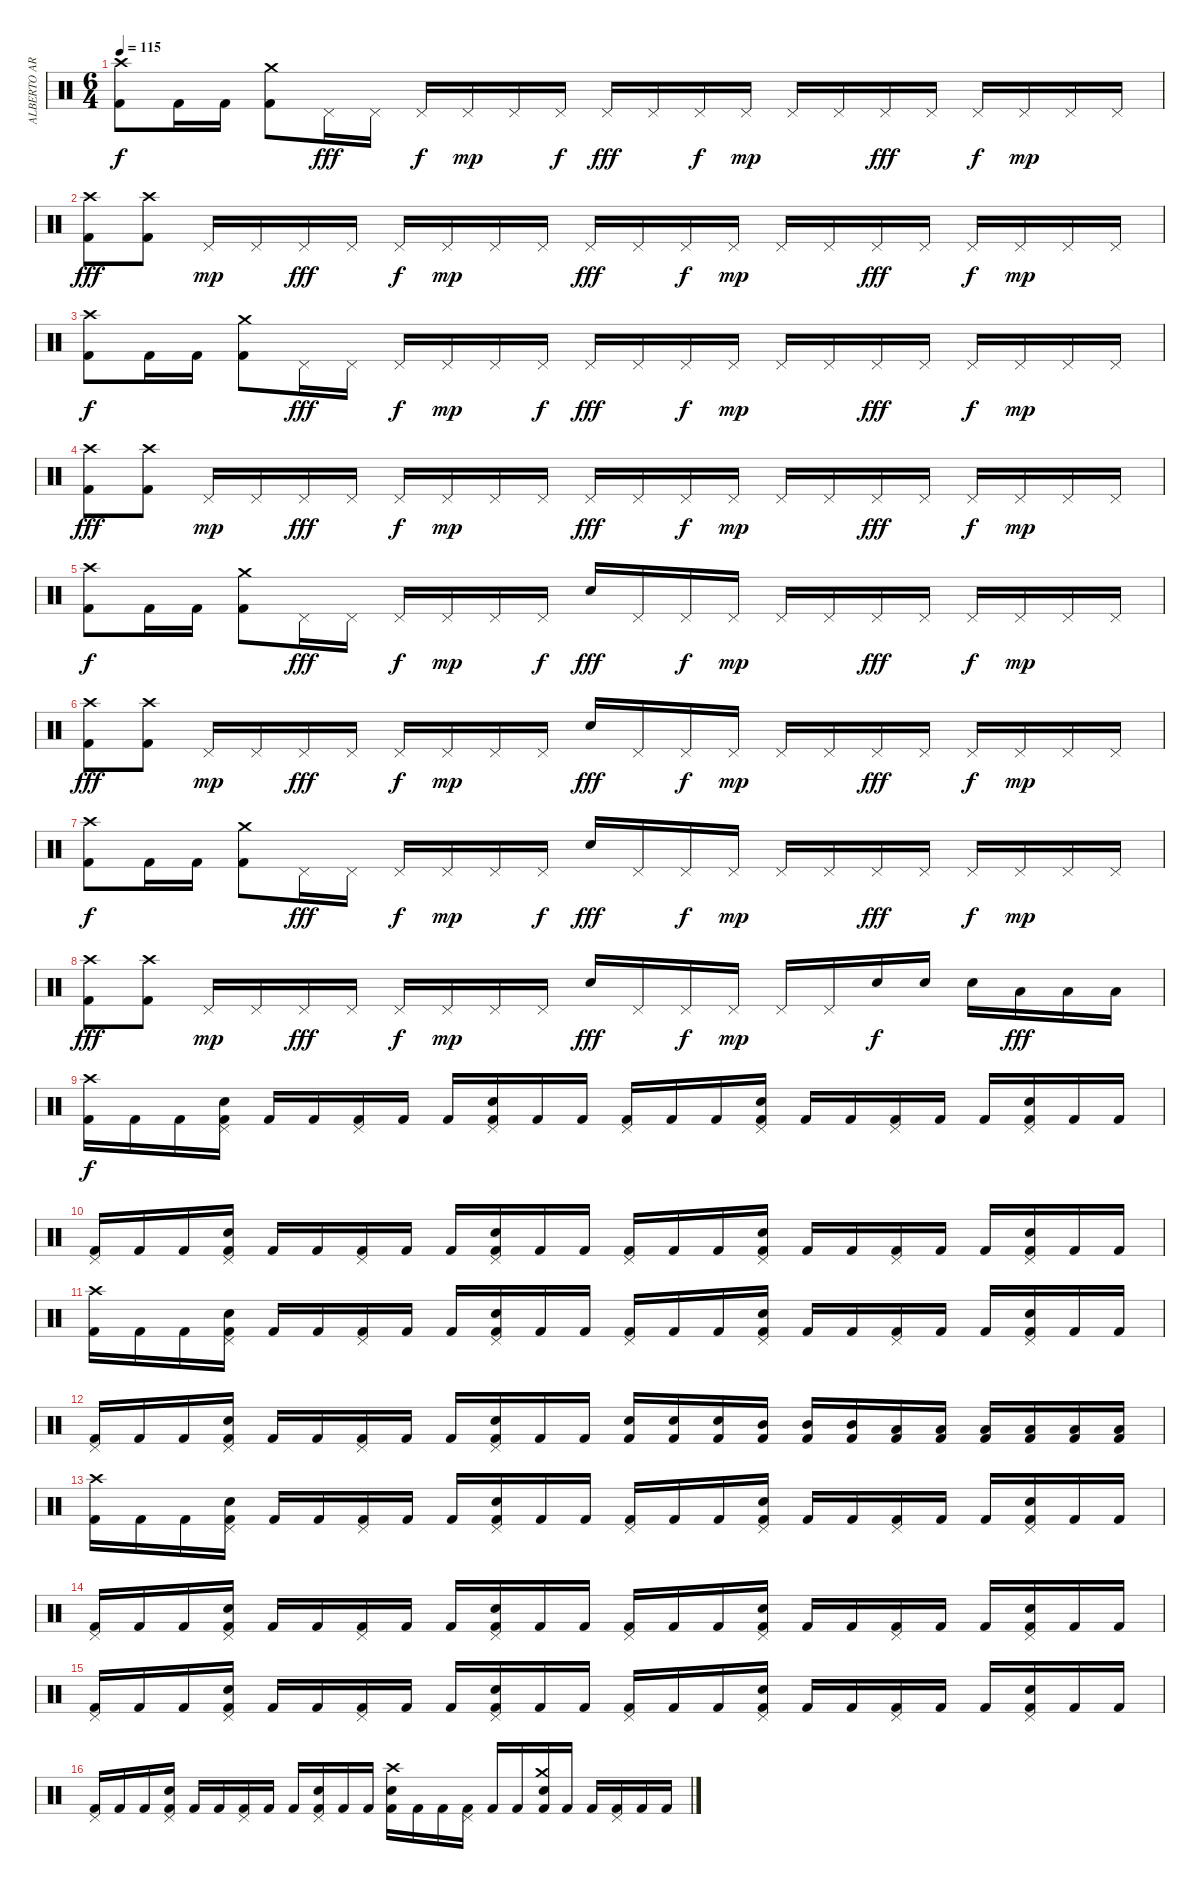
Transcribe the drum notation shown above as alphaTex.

\track ("ALBERTO ARDINES" "ALBERTO AR") {instrument percussion}
\staff {score}
\articulation defaults
\ts (6 4)
\tempo 115
\clef neutral
\ks c
("Crash high (hit)" "Kick (hit) 2").8{dy f} "Kick (hit) 2".16 "Kick (hit) 2".16 ("Crash medium (hit)" "Kick (hit) 2").8 "Pedal Hi-Hat (hit)".16{dy fff} "Pedal Hi-Hat (hit)".16 "Pedal Hi-Hat (hit)".16{dy f} "Pedal Hi-Hat (hit)".16{dy mp} "Pedal Hi-Hat (hit)".16 "Pedal Hi-Hat (hit)".16{dy f} "Pedal Hi-Hat (hit)".16{dy fff} "Pedal Hi-Hat (hit)".16 "Pedal Hi-Hat (hit)".16{dy f} "Pedal Hi-Hat (hit)".16{dy mp} "Pedal Hi-Hat (hit)".16 "Pedal Hi-Hat (hit)".16 "Pedal Hi-Hat (hit)".16{dy fff} "Pedal Hi-Hat (hit)".16 "Pedal Hi-Hat (hit)".16{dy f} "Pedal Hi-Hat (hit)".16{dy mp} "Pedal Hi-Hat (hit)".16 "Pedal Hi-Hat (hit)".16 |
("Crash high (hit)" "Kick (hit) 2").8{dy fff} ("Crash high (hit)" "Kick (hit) 2").8 "Pedal Hi-Hat (hit)".16{dy mp} "Pedal Hi-Hat (hit)".16 "Pedal Hi-Hat (hit)".16{dy fff} "Pedal Hi-Hat (hit)".16 "Pedal Hi-Hat (hit)".16{dy f} "Pedal Hi-Hat (hit)".16{dy mp} "Pedal Hi-Hat (hit)".16 "Pedal Hi-Hat (hit)".16 "Pedal Hi-Hat (hit)".16{dy fff} "Pedal Hi-Hat (hit)".16 "Pedal Hi-Hat (hit)".16{dy f} "Pedal Hi-Hat (hit)".16{dy mp} "Pedal Hi-Hat (hit)".16 "Pedal Hi-Hat (hit)".16 "Pedal Hi-Hat (hit)".16{dy fff} "Pedal Hi-Hat (hit)".16 "Pedal Hi-Hat (hit)".16{dy f} "Pedal Hi-Hat (hit)".16{dy mp} "Pedal Hi-Hat (hit)".16 "Pedal Hi-Hat (hit)".16 |
("Crash high (hit)" "Kick (hit) 2").8{dy f} "Kick (hit) 2".16 "Kick (hit) 2".16 ("Crash medium (hit)" "Kick (hit) 2").8 "Pedal Hi-Hat (hit)".16{dy fff} "Pedal Hi-Hat (hit)".16 "Pedal Hi-Hat (hit)".16{dy f} "Pedal Hi-Hat (hit)".16{dy mp} "Pedal Hi-Hat (hit)".16 "Pedal Hi-Hat (hit)".16{dy f} "Pedal Hi-Hat (hit)".16{dy fff} "Pedal Hi-Hat (hit)".16 "Pedal Hi-Hat (hit)".16{dy f} "Pedal Hi-Hat (hit)".16{dy mp} "Pedal Hi-Hat (hit)".16 "Pedal Hi-Hat (hit)".16 "Pedal Hi-Hat (hit)".16{dy fff} "Pedal Hi-Hat (hit)".16 "Pedal Hi-Hat (hit)".16{dy f} "Pedal Hi-Hat (hit)".16{dy mp} "Pedal Hi-Hat (hit)".16 "Pedal Hi-Hat (hit)".16 |
("Crash high (hit)" "Kick (hit) 2").8{dy fff} ("Crash high (hit)" "Kick (hit) 2").8 "Pedal Hi-Hat (hit)".16{dy mp} "Pedal Hi-Hat (hit)".16 "Pedal Hi-Hat (hit)".16{dy fff} "Pedal Hi-Hat (hit)".16 "Pedal Hi-Hat (hit)".16{dy f} "Pedal Hi-Hat (hit)".16{dy mp} "Pedal Hi-Hat (hit)".16 "Pedal Hi-Hat (hit)".16 "Pedal Hi-Hat (hit)".16{dy fff} "Pedal Hi-Hat (hit)".16 "Pedal Hi-Hat (hit)".16{dy f} "Pedal Hi-Hat (hit)".16{dy mp} "Pedal Hi-Hat (hit)".16 "Pedal Hi-Hat (hit)".16 "Pedal Hi-Hat (hit)".16{dy fff} "Pedal Hi-Hat (hit)".16 "Pedal Hi-Hat (hit)".16{dy f} "Pedal Hi-Hat (hit)".16{dy mp} "Pedal Hi-Hat (hit)".16 "Pedal Hi-Hat (hit)".16 |
("Crash high (hit)" "Kick (hit) 2").8{dy f} "Kick (hit) 2".16 "Kick (hit) 2".16 ("Crash medium (hit)" "Kick (hit) 2").8 "Pedal Hi-Hat (hit)".16{dy fff} "Pedal Hi-Hat (hit)".16 "Pedal Hi-Hat (hit)".16{dy f} "Pedal Hi-Hat (hit)".16{dy mp} "Pedal Hi-Hat (hit)".16 "Pedal Hi-Hat (hit)".16{dy f} "Electric Snare (hit)".16{dy fff} "Pedal Hi-Hat (hit)".16 "Pedal Hi-Hat (hit)".16{dy f} "Pedal Hi-Hat (hit)".16{dy mp} "Pedal Hi-Hat (hit)".16 "Pedal Hi-Hat (hit)".16 "Pedal Hi-Hat (hit)".16{dy fff} "Pedal Hi-Hat (hit)".16 "Pedal Hi-Hat (hit)".16{dy f} "Pedal Hi-Hat (hit)".16{dy mp} "Pedal Hi-Hat (hit)".16 "Pedal Hi-Hat (hit)".16 |
("Crash high (hit)" "Kick (hit) 2").8{dy fff} ("Crash high (hit)" "Kick (hit) 2").8 "Pedal Hi-Hat (hit)".16{dy mp} "Pedal Hi-Hat (hit)".16 "Pedal Hi-Hat (hit)".16{dy fff} "Pedal Hi-Hat (hit)".16 "Pedal Hi-Hat (hit)".16{dy f} "Pedal Hi-Hat (hit)".16{dy mp} "Pedal Hi-Hat (hit)".16 "Pedal Hi-Hat (hit)".16 "Electric Snare (hit)".16{dy fff} "Pedal Hi-Hat (hit)".16 "Pedal Hi-Hat (hit)".16{dy f} "Pedal Hi-Hat (hit)".16{dy mp} "Pedal Hi-Hat (hit)".16 "Pedal Hi-Hat (hit)".16 "Pedal Hi-Hat (hit)".16{dy fff} "Pedal Hi-Hat (hit)".16 "Pedal Hi-Hat (hit)".16{dy f} "Pedal Hi-Hat (hit)".16{dy mp} "Pedal Hi-Hat (hit)".16 "Pedal Hi-Hat (hit)".16 |
("Crash high (hit)" "Kick (hit) 2").8{dy f} "Kick (hit) 2".16 "Kick (hit) 2".16 ("Crash medium (hit)" "Kick (hit) 2").8 "Pedal Hi-Hat (hit)".16{dy fff} "Pedal Hi-Hat (hit)".16 "Pedal Hi-Hat (hit)".16{dy f} "Pedal Hi-Hat (hit)".16{dy mp} "Pedal Hi-Hat (hit)".16 "Pedal Hi-Hat (hit)".16{dy f} "Electric Snare (hit)".16{dy fff} "Pedal Hi-Hat (hit)".16 "Pedal Hi-Hat (hit)".16{dy f} "Pedal Hi-Hat (hit)".16{dy mp} "Pedal Hi-Hat (hit)".16 "Pedal Hi-Hat (hit)".16 "Pedal Hi-Hat (hit)".16{dy fff} "Pedal Hi-Hat (hit)".16 "Pedal Hi-Hat (hit)".16{dy f} "Pedal Hi-Hat (hit)".16{dy mp} "Pedal Hi-Hat (hit)".16 "Pedal Hi-Hat (hit)".16 |
("Crash high (hit)" "Kick (hit) 2").8{dy fff} ("Crash high (hit)" "Kick (hit) 2").8 "Pedal Hi-Hat (hit)".16{dy mp} "Pedal Hi-Hat (hit)".16 "Pedal Hi-Hat (hit)".16{dy fff} "Pedal Hi-Hat (hit)".16 "Pedal Hi-Hat (hit)".16{dy f} "Pedal Hi-Hat (hit)".16{dy mp} "Pedal Hi-Hat (hit)".16 "Pedal Hi-Hat (hit)".16 "Electric Snare (hit)".16{dy fff} "Pedal Hi-Hat (hit)".16 "Pedal Hi-Hat (hit)".16{dy f} "Pedal Hi-Hat (hit)".16{dy mp} "Pedal Hi-Hat (hit)".16 "Pedal Hi-Hat (hit)".16 "Electric Snare (hit)".16{dy f} "Electric Snare (hit)".16 "Electric Snare (hit)".16 "Low Tom (hit)".16{dy fff} "Low Tom (hit)".16 "Low Tom (hit)".16 |
("Crash high (hit)" "Kick (hit) 2").16{dy f} "Kick (hit) 2".16 "Kick (hit) 2".16 ("Pedal Hi-Hat (hit)" "Electric Snare (hit)" "Kick (hit) 2").16 "Kick (hit) 2".16 "Kick (hit) 2".16 ("Pedal Hi-Hat (hit)" "Kick (hit) 2").16 "Kick (hit) 2".16 "Kick (hit) 2".16 ("Pedal Hi-Hat (hit)" "Electric Snare (hit)" "Kick (hit) 2").16 "Kick (hit) 2".16 "Kick (hit) 2".16 ("Pedal Hi-Hat (hit)" "Kick (hit) 2").16 "Kick (hit) 2".16 "Kick (hit) 2".16 ("Pedal Hi-Hat (hit)" "Electric Snare (hit)" "Kick (hit) 2").16 "Kick (hit) 2".16 "Kick (hit) 2".16 ("Pedal Hi-Hat (hit)" "Kick (hit) 2").16 "Kick (hit) 2".16 "Kick (hit) 2".16 ("Pedal Hi-Hat (hit)" "Electric Snare (hit)" "Kick (hit) 2").16 "Kick (hit) 2".16 "Kick (hit) 2".16 |
("Pedal Hi-Hat (hit)" "Kick (hit) 2").16 "Kick (hit) 2".16 "Kick (hit) 2".16 ("Pedal Hi-Hat (hit)" "Electric Snare (hit)" "Kick (hit) 2").16 "Kick (hit) 2".16 "Kick (hit) 2".16 ("Pedal Hi-Hat (hit)" "Kick (hit) 2").16 "Kick (hit) 2".16 "Kick (hit) 2".16 ("Pedal Hi-Hat (hit)" "Electric Snare (hit)" "Kick (hit) 2").16 "Kick (hit) 2".16 "Kick (hit) 2".16 ("Pedal Hi-Hat (hit)" "Kick (hit) 2").16 "Kick (hit) 2".16 "Kick (hit) 2".16 ("Pedal Hi-Hat (hit)" "Electric Snare (hit)" "Kick (hit) 2").16 "Kick (hit) 2".16 "Kick (hit) 2".16 ("Pedal Hi-Hat (hit)" "Kick (hit) 2").16 "Kick (hit) 2".16 "Kick (hit) 2".16 ("Pedal Hi-Hat (hit)" "Electric Snare (hit)" "Kick (hit) 2").16 "Kick (hit) 2".16 "Kick (hit) 2".16 |
("Crash high (hit)" "Kick (hit) 2").16 "Kick (hit) 2".16 "Kick (hit) 2".16 ("Pedal Hi-Hat (hit)" "Electric Snare (hit)" "Kick (hit) 2").16 "Kick (hit) 2".16 "Kick (hit) 2".16 ("Pedal Hi-Hat (hit)" "Kick (hit) 2").16 "Kick (hit) 2".16 "Kick (hit) 2".16 ("Pedal Hi-Hat (hit)" "Electric Snare (hit)" "Kick (hit) 2").16 "Kick (hit) 2".16 "Kick (hit) 2".16 ("Pedal Hi-Hat (hit)" "Kick (hit) 2").16 "Kick (hit) 2".16 "Kick (hit) 2".16 ("Pedal Hi-Hat (hit)" "Electric Snare (hit)" "Kick (hit) 2").16 "Kick (hit) 2".16 "Kick (hit) 2".16 ("Pedal Hi-Hat (hit)" "Kick (hit) 2").16 "Kick (hit) 2".16 "Kick (hit) 2".16 ("Pedal Hi-Hat (hit)" "Electric Snare (hit)" "Kick (hit) 2").16 "Kick (hit) 2".16 "Kick (hit) 2".16 |
("Pedal Hi-Hat (hit)" "Kick (hit) 2").16 "Kick (hit) 2".16 "Kick (hit) 2".16 ("Pedal Hi-Hat (hit)" "Electric Snare (hit)" "Kick (hit) 2").16 "Kick (hit) 2".16 "Kick (hit) 2".16 ("Pedal Hi-Hat (hit)" "Kick (hit) 2").16 "Kick (hit) 2".16 "Kick (hit) 2".16 ("Pedal Hi-Hat (hit)" "Electric Snare (hit)" "Kick (hit) 2").16 "Kick (hit) 2".16 "Kick (hit) 2".16 ("Electric Snare (hit)" "Kick (hit) 2").16 ("Electric Snare (hit)" "Kick (hit) 2").16 ("Electric Snare (hit)" "Kick (hit) 2").16 ("Mid Tom (hit)" "Kick (hit) 2").16 ("Mid Tom (hit)" "Kick (hit) 2").16 ("Mid Tom (hit)" "Kick (hit) 2").16 ("Low Tom (hit)" "Kick (hit) 2").16 ("Low Tom (hit)" "Kick (hit) 2").16 ("Low Tom (hit)" "Kick (hit) 2").16 ("Low Floor Tom (hit)" "Kick (hit) 2").16 ("Low Floor Tom (hit)" "Kick (hit) 2").16 ("Low Floor Tom (hit)" "Kick (hit) 2").16 |
("Crash high (hit)" "Kick (hit) 2").16 "Kick (hit) 2".16 "Kick (hit) 2".16 ("Pedal Hi-Hat (hit)" "Electric Snare (hit)" "Kick (hit) 2").16 "Kick (hit) 2".16 "Kick (hit) 2".16 ("Pedal Hi-Hat (hit)" "Kick (hit) 2").16 "Kick (hit) 2".16 "Kick (hit) 2".16 ("Pedal Hi-Hat (hit)" "Electric Snare (hit)" "Kick (hit) 2").16 "Kick (hit) 2".16 "Kick (hit) 2".16 ("Pedal Hi-Hat (hit)" "Kick (hit) 2").16 "Kick (hit) 2".16 "Kick (hit) 2".16 ("Pedal Hi-Hat (hit)" "Electric Snare (hit)" "Kick (hit) 2").16 "Kick (hit) 2".16 "Kick (hit) 2".16 ("Pedal Hi-Hat (hit)" "Kick (hit) 2").16 "Kick (hit) 2".16 "Kick (hit) 2".16 ("Pedal Hi-Hat (hit)" "Electric Snare (hit)" "Kick (hit) 2").16 "Kick (hit) 2".16 "Kick (hit) 2".16 |
("Pedal Hi-Hat (hit)" "Kick (hit) 2").16 "Kick (hit) 2".16 "Kick (hit) 2".16 ("Pedal Hi-Hat (hit)" "Electric Snare (hit)" "Kick (hit) 2").16 "Kick (hit) 2".16 "Kick (hit) 2".16 ("Pedal Hi-Hat (hit)" "Kick (hit) 2").16 "Kick (hit) 2".16 "Kick (hit) 2".16 ("Pedal Hi-Hat (hit)" "Electric Snare (hit)" "Kick (hit) 2").16 "Kick (hit) 2".16 "Kick (hit) 2".16 ("Pedal Hi-Hat (hit)" "Kick (hit) 2").16 "Kick (hit) 2".16 "Kick (hit) 2".16 ("Pedal Hi-Hat (hit)" "Electric Snare (hit)" "Kick (hit) 2").16 "Kick (hit) 2".16 "Kick (hit) 2".16 ("Pedal Hi-Hat (hit)" "Kick (hit) 2").16 "Kick (hit) 2".16 "Kick (hit) 2".16 ("Pedal Hi-Hat (hit)" "Electric Snare (hit)" "Kick (hit) 2").16 "Kick (hit) 2".16 "Kick (hit) 2".16 |
("Pedal Hi-Hat (hit)" "Kick (hit) 2").16 "Kick (hit) 2".16 "Kick (hit) 2".16 ("Pedal Hi-Hat (hit)" "Electric Snare (hit)" "Kick (hit) 2").16 "Kick (hit) 2".16 "Kick (hit) 2".16 ("Pedal Hi-Hat (hit)" "Kick (hit) 2").16 "Kick (hit) 2".16 "Kick (hit) 2".16 ("Pedal Hi-Hat (hit)" "Electric Snare (hit)" "Kick (hit) 2").16 "Kick (hit) 2".16 "Kick (hit) 2".16 ("Pedal Hi-Hat (hit)" "Kick (hit) 2").16 "Kick (hit) 2".16 "Kick (hit) 2".16 ("Pedal Hi-Hat (hit)" "Electric Snare (hit)" "Kick (hit) 2").16 "Kick (hit) 2".16 "Kick (hit) 2".16 ("Pedal Hi-Hat (hit)" "Kick (hit) 2").16 "Kick (hit) 2".16 "Kick (hit) 2".16 ("Pedal Hi-Hat (hit)" "Electric Snare (hit)" "Kick (hit) 2").16 "Kick (hit) 2".16 "Kick (hit) 2".16 |
("Pedal Hi-Hat (hit)" "Kick (hit) 2").16 "Kick (hit) 2".16 "Kick (hit) 2".16 ("Pedal Hi-Hat (hit)" "Electric Snare (hit)" "Kick (hit) 2").16 "Kick (hit) 2".16 "Kick (hit) 2".16 ("Pedal Hi-Hat (hit)" "Kick (hit) 2").16 "Kick (hit) 2".16 "Kick (hit) 2".16 ("Pedal Hi-Hat (hit)" "Electric Snare (hit)" "Kick (hit) 2").16 "Kick (hit) 2".16 "Kick (hit) 2".16 ("Crash high (hit)" "Electric Snare (hit)" "Kick (hit) 2").16 "Kick (hit) 2".16 "Kick (hit) 2".16 ("Pedal Hi-Hat (hit)" "Kick (hit) 2").16 "Kick (hit) 2".16 "Kick (hit) 2".16 ("Crash medium (hit)" "Electric Snare (hit)" "Kick (hit) 2").16 "Kick (hit) 2".16 "Kick (hit) 2".16 ("Pedal Hi-Hat (hit)" "Kick (hit) 2").16 "Kick (hit) 2".16 "Kick (hit) 2".16
